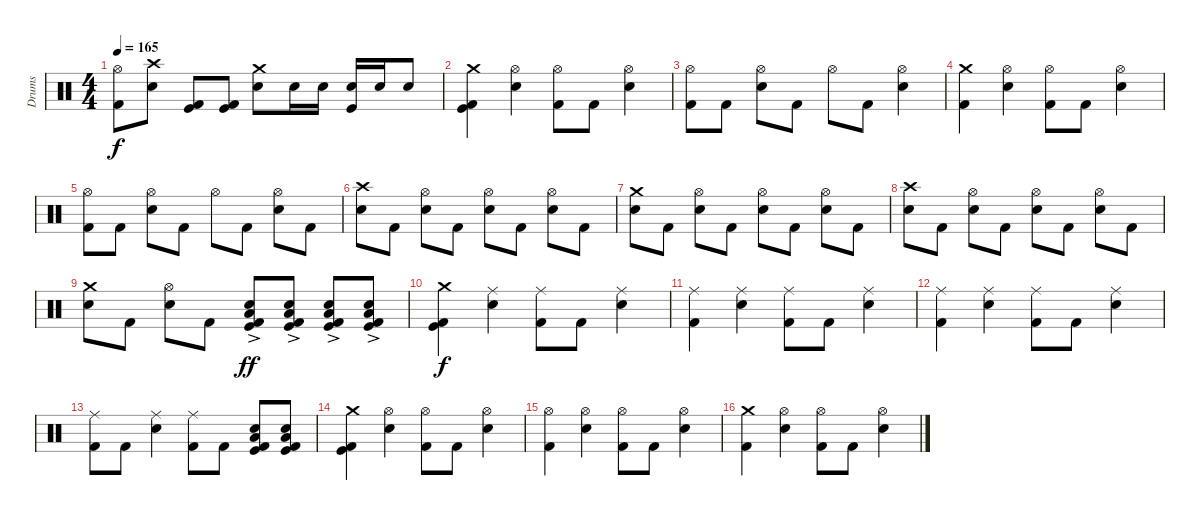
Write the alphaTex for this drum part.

\track ("Drums" "Drums") {instrument percussion}
\staff {score}
\articulation defaults
\ts (4 4)
\tempo 165
\clef neutral
\ks c
("Hi-Hat (open)" "Kick (hit) 2").8{dy f} ("Electric Snare (hit)" "Crash high (hit)").8 ("Kick (hit) 2" "Kick (hit)").8 ("Kick (hit) 2" "Kick (hit)").8 ("Crash medium (hit)" "Electric Snare (hit)").8 "Electric Snare (hit)".16 "Electric Snare (hit)".16 ("Kick (hit)" "Electric Snare (hit)").16 "Electric Snare (hit)".16 "Electric Snare (hit)".8 |
("Kick (hit)" "Kick (hit) 2" "Crash medium (hit)").4 ("Hi-Hat (open)" "Electric Snare (hit)").4 ("Hi-Hat (open)" "Kick (hit) 2").8 "Kick (hit) 2".8 ("Hi-Hat (open)" "Electric Snare (hit)").4 |
("Hi-Hat (open)" "Kick (hit) 2").8 "Kick (hit) 2".8 ("Hi-Hat (open)" "Electric Snare (hit)").8 "Kick (hit) 2".8 "Hi-Hat (open)".8 "Kick (hit) 2".8 ("Hi-Hat (open)" "Electric Snare (hit)").4 |
("Crash medium (hit)" "Kick (hit) 2").4 ("Hi-Hat (open)" "Electric Snare (hit)").4 ("Hi-Hat (open)" "Kick (hit) 2").8 "Kick (hit) 2".8 ("Hi-Hat (open)" "Electric Snare (hit)").4 |
("Hi-Hat (open)" "Kick (hit) 2").8 "Kick (hit) 2".8 ("Hi-Hat (open)" "Electric Snare (hit)").8 "Kick (hit) 2".8 "Hi-Hat (open)".8 "Kick (hit) 2".8 ("Hi-Hat (open)" "Electric Snare (hit)").8 "Kick (hit) 2".8 |
("Crash high (hit)" "Electric Snare (hit)").8 "Kick (hit) 2".8 ("Hi-Hat (open)" "Electric Snare (hit)").8 "Kick (hit) 2".8 ("Hi-Hat (open)" "Electric Snare (hit)").8 "Kick (hit) 2".8 ("Hi-Hat (open)" "Electric Snare (hit)").8 "Kick (hit) 2".8 |
("Crash medium (hit)" "Electric Snare (hit)").8 "Kick (hit) 2".8 ("Hi-Hat (open)" "Electric Snare (hit)").8 "Kick (hit) 2".8 ("Hi-Hat (open)" "Electric Snare (hit)").8 "Kick (hit) 2".8 ("Hi-Hat (open)" "Electric Snare (hit)").8 "Kick (hit) 2".8 |
("Crash high (hit)" "Electric Snare (hit)").8 "Kick (hit) 2".8 ("Hi-Hat (open)" "Electric Snare (hit)").8 "Kick (hit) 2".8 ("Hi-Hat (open)" "Electric Snare (hit)").8 "Kick (hit) 2".8 ("Hi-Hat (open)" "Electric Snare (hit)").8 "Kick (hit) 2".8 |
("Crash medium (hit)" "Electric Snare (hit)").8 "Kick (hit) 2".8 ("Hi-Hat (open)" "Electric Snare (hit)").8 "Kick (hit) 2".8 ("Low Floor Tom (hit)" "Electric Snare (hit)"{ac} "Kick (hit) 2" "Kick (hit)").8{dy ff} ("Low Floor Tom (hit)" "Electric Snare (hit)"{ac} "Kick (hit) 2" "Kick (hit)").8 ("Low Floor Tom (hit)" "Electric Snare (hit)"{ac} "Kick (hit) 2" "Kick (hit)").8 ("Low Floor Tom (hit)" "Electric Snare (hit)"{ac} "Kick (hit) 2" "Kick (hit)").8 |
("Kick (hit)" "Kick (hit) 2" "Crash medium (hit)").4{dy f} ("Ride (middle)" "Electric Snare (hit)").4 ("Ride (middle)" "Kick (hit) 2").8 "Kick (hit) 2".8 ("Ride (middle)" "Electric Snare (hit)").4 |
("Ride (middle)" "Kick (hit) 2").4 ("Ride (middle)" "Electric Snare (hit)").4 ("Ride (middle)" "Kick (hit) 2").8 "Kick (hit) 2".8 ("Ride (middle)" "Electric Snare (hit)").4 |
("Ride (middle)" "Kick (hit) 2").4 ("Ride (middle)" "Electric Snare (hit)").4 ("Ride (middle)" "Kick (hit) 2").8 "Kick (hit) 2".8 ("Ride (middle)" "Electric Snare (hit)").4 |
("Ride (middle)" "Kick (hit) 2").8 "Kick (hit) 2".8 ("Ride (middle)" "Electric Snare (hit)").4 ("Ride (middle)" "Kick (hit) 2").8 "Kick (hit) 2".8 ("Low Floor Tom (hit)" "Electric Snare (hit)" "Kick (hit) 2" "Kick (hit)").8 ("Low Floor Tom (hit)" "Electric Snare (hit)" "Kick (hit) 2" "Kick (hit)").8 |
("Kick (hit)" "Kick (hit) 2" "Crash medium (hit)").4 ("Hi-Hat (open)" "Electric Snare (hit)").4 ("Hi-Hat (open)" "Kick (hit) 2").8 "Kick (hit) 2".8 ("Hi-Hat (open)" "Electric Snare (hit)").4 |
("Hi-Hat (open)" "Kick (hit) 2").4 ("Hi-Hat (open)" "Electric Snare (hit)").4 ("Hi-Hat (open)" "Kick (hit) 2").8 "Kick (hit) 2".8 ("Hi-Hat (open)" "Electric Snare (hit)").4 |
("Crash medium (hit)" "Kick (hit) 2").4 ("Hi-Hat (open)" "Electric Snare (hit)").4 ("Hi-Hat (open)" "Kick (hit) 2").8 "Kick (hit) 2".8 ("Hi-Hat (open)" "Electric Snare (hit)").4
